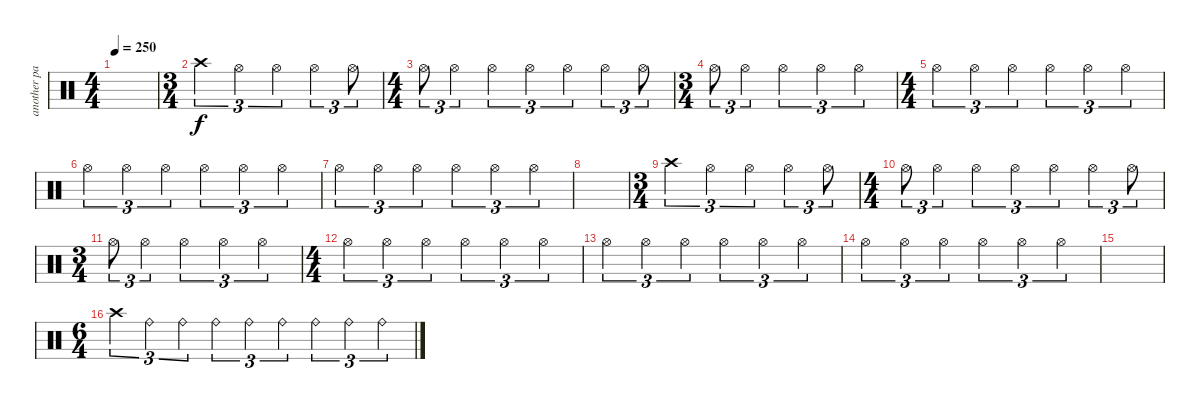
\track ("another part of metti" "another pa") {instrument percussion}
\staff {score}
\articulation defaults
\ts (4 4)
\tempo 250
\clef neutral
\ks c
|
\ts (3 4)
"Crash high (hit)".4{tu (3 2)} "Hi-Hat (open)".4{tu (3 2)} "Hi-Hat (open)".4{tu (3 2)} "Hi-Hat (open)".4{tu (3 2)} "Hi-Hat (open)".8{tu (3 2)} |
\ts (4 4)
"Hi-Hat (open)".8{tu (3 2)} "Hi-Hat (open)".4{tu (3 2)} "Hi-Hat (open)".4{tu (3 2)} "Hi-Hat (open)".4{tu (3 2)} "Hi-Hat (open)".4{tu (3 2)} "Hi-Hat (open)".4{tu (3 2)} "Hi-Hat (open)".8{tu (3 2)} |
\ts (3 4)
"Hi-Hat (open)".8{tu (3 2)} "Hi-Hat (open)".4{tu (3 2)} "Hi-Hat (open)".4{tu (3 2)} "Hi-Hat (open)".4{tu (3 2)} "Hi-Hat (open)".4{tu (3 2)} |
\ts (4 4)
"Hi-Hat (open)".4{tu (3 2)} "Hi-Hat (open)".4{tu (3 2)} "Hi-Hat (open)".4{tu (3 2)} "Hi-Hat (open)".4{tu (3 2)} "Hi-Hat (open)".4{tu (3 2)} "Hi-Hat (open)".4{tu (3 2)} |
"Hi-Hat (open)".4{tu (3 2)} "Hi-Hat (open)".4{tu (3 2)} "Hi-Hat (open)".4{tu (3 2)} "Hi-Hat (open)".4{tu (3 2)} "Hi-Hat (open)".4{tu (3 2)} "Hi-Hat (open)".4{tu (3 2)} |
"Hi-Hat (open)".4{tu (3 2)} "Hi-Hat (open)".4{tu (3 2)} "Hi-Hat (open)".4{tu (3 2)} "Hi-Hat (open)".4{tu (3 2)} "Hi-Hat (open)".4{tu (3 2)} "Hi-Hat (open)".4{tu (3 2)} |
|
\ts (3 4)
"Crash high (hit)".4{tu (3 2)} "Hi-Hat (open)".4{tu (3 2)} "Hi-Hat (open)".4{tu (3 2)} "Hi-Hat (open)".4{tu (3 2)} "Hi-Hat (open)".8{tu (3 2)} |
\ts (4 4)
"Hi-Hat (open)".8{tu (3 2)} "Hi-Hat (open)".4{tu (3 2)} "Hi-Hat (open)".4{tu (3 2)} "Hi-Hat (open)".4{tu (3 2)} "Hi-Hat (open)".4{tu (3 2)} "Hi-Hat (open)".4{tu (3 2)} "Hi-Hat (open)".8{tu (3 2)} |
\ts (3 4)
"Hi-Hat (open)".8{tu (3 2)} "Hi-Hat (open)".4{tu (3 2)} "Hi-Hat (open)".4{tu (3 2)} "Hi-Hat (open)".4{tu (3 2)} "Hi-Hat (open)".4{tu (3 2)} |
\ts (4 4)
"Hi-Hat (open)".4{tu (3 2)} "Hi-Hat (open)".4{tu (3 2)} "Hi-Hat (open)".4{tu (3 2)} "Hi-Hat (open)".4{tu (3 2)} "Hi-Hat (open)".4{tu (3 2)} "Hi-Hat (open)".4{tu (3 2)} |
"Hi-Hat (open)".4{tu (3 2)} "Hi-Hat (open)".4{tu (3 2)} "Hi-Hat (open)".4{tu (3 2)} "Hi-Hat (open)".4{tu (3 2)} "Hi-Hat (open)".4{tu (3 2)} "Hi-Hat (open)".4{tu (3 2)} |
"Hi-Hat (open)".4{tu (3 2)} "Hi-Hat (open)".4{tu (3 2)} "Hi-Hat (open)".4{tu (3 2)} "Hi-Hat (open)".4{tu (3 2)} "Hi-Hat (open)".4{tu (3 2)} "Hi-Hat (open)".4{tu (3 2)} |
|
\ts (6 4)
"Crash high (hit)".4{tu (3 2)} "Ride (bell)".4{tu (3 2)} "Ride (bell)".4{tu (3 2)} "Ride (bell)".4{tu (3 2)} "Ride (bell)".4{tu (3 2)} "Ride (bell)".4{tu (3 2)} "Ride (bell)".4{tu (3 2)} "Ride (bell)".4{tu (3 2)} "Ride (bell)".4{tu (3 2)}
